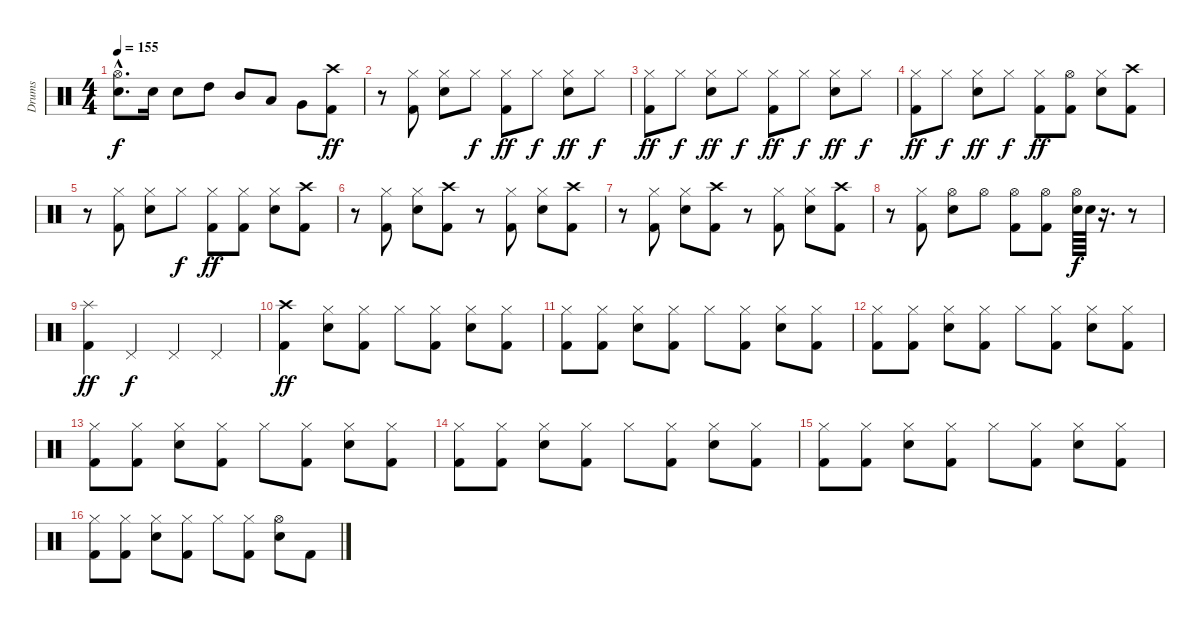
\track ("Drums" "Drums") {instrument percussion}
\staff {score}
\articulation defaults
\ts (4 4)
\tempo 155
\clef neutral
\ks c
("Hi-Hat (open)"{hac} "Snare (hit) 2"{hac}).8{d dy f} "Snare (hit) 2".16 "Snare (hit) 2".8 "High Tom (hit)".8 "Mid Tom (hit)".8 "Low Tom (hit)".8 "Very Low Tom (hit)".8 ("Crash high (hit)" "Kick (hit) 2").8{dy ff} |
r.8 ("Hi-Hat (closed)" "Kick (hit) 2").8 ("Hi-Hat (closed)" "Snare (hit) 2").8 "Hi-Hat (closed)".8{dy f} ("Hi-Hat (closed)" "Kick (hit) 2").8{dy ff} "Hi-Hat (closed)".8{dy f} ("Hi-Hat (closed)" "Snare (hit) 2").8{dy ff} "Hi-Hat (closed)".8{dy f} |
("Hi-Hat (closed)" "Kick (hit) 2").8{dy ff} "Hi-Hat (closed)".8{dy f} ("Hi-Hat (closed)" "Snare (hit) 2").8{dy ff} "Hi-Hat (closed)".8{dy f} ("Hi-Hat (closed)" "Kick (hit) 2").8{dy ff} "Hi-Hat (closed)".8{dy f} ("Hi-Hat (closed)" "Snare (hit) 2").8{dy ff} "Hi-Hat (closed)".8{dy f} |
("Hi-Hat (closed)" "Kick (hit) 2").8{dy ff} "Hi-Hat (closed)".8{dy f} ("Hi-Hat (closed)" "Snare (hit) 2").8{dy ff} "Hi-Hat (closed)".8{dy f} ("Hi-Hat (closed)" "Kick (hit) 2").8{dy ff} ("Hi-Hat (open)" "Kick (hit) 2").8 ("Hi-Hat (closed)" "Snare (hit) 2").8 ("Crash high (hit)" "Kick (hit) 2").8 |
r.8 ("Hi-Hat (closed)" "Kick (hit) 2").8 ("Hi-Hat (closed)" "Snare (hit) 2").8 "Hi-Hat (closed)".8{dy f} ("Hi-Hat (closed)" "Kick (hit) 2").8{dy ff} ("Hi-Hat (closed)" "Kick (hit) 2").8 ("Hi-Hat (closed)" "Snare (hit) 2").8 ("Crash high (hit)" "Kick (hit) 2").8 |
r.8 ("Hi-Hat (closed)" "Kick (hit) 2").8 ("Hi-Hat (closed)" "Snare (hit) 2").8 ("Crash high (hit)" "Kick (hit) 2").8 r.8 ("Hi-Hat (closed)" "Kick (hit) 2").8 ("Hi-Hat (closed)" "Snare (hit) 2").8 ("Crash high (hit)" "Kick (hit) 2").8 |
r.8 ("Hi-Hat (closed)" "Kick (hit) 2").8 ("Hi-Hat (closed)" "Snare (hit) 2").8 ("Crash high (hit)" "Kick (hit) 2").8 r.8 ("Hi-Hat (closed)" "Kick (hit) 2").8 ("Hi-Hat (closed)" "Snare (hit) 2").8 ("Crash high (hit)" "Kick (hit) 2").8 |
r.8 ("Hi-Hat (closed)" "Kick (hit) 2").8 ("Hi-Hat (open)" "Snare (hit) 2").8 "Hi-Hat (open)".8 ("Hi-Hat (open)" "Kick (hit) 2").8 ("Hi-Hat (open)" "Kick (hit) 2").8 ("Hi-Hat (open)" "Snare (hit) 2").64{dy f} "Snare (hit) 2".64 r.16{d} r.8 |
("Splash (hit)" "Kick (hit) 2").4{dy ff} "Pedal Hi-Hat (hit)".4{dy f} "Pedal Hi-Hat (hit)".4 "Pedal Hi-Hat (hit)".4 |
("Crash high (hit)" "Kick (hit) 2").4{dy ff} ("Hi-Hat (closed)" "Snare (hit) 2").8 ("Hi-Hat (closed)" "Kick (hit) 2").8 "Hi-Hat (closed)".8 ("Hi-Hat (closed)" "Kick (hit) 2").8 ("Hi-Hat (closed)" "Snare (hit) 2").8 ("Hi-Hat (closed)" "Kick (hit) 2").8 |
("Hi-Hat (closed)" "Kick (hit) 2").8 ("Hi-Hat (closed)" "Kick (hit) 2").8 ("Hi-Hat (closed)" "Snare (hit) 2").8 ("Hi-Hat (closed)" "Kick (hit) 2").8 "Hi-Hat (closed)".8 ("Hi-Hat (closed)" "Kick (hit) 2").8 ("Hi-Hat (closed)" "Snare (hit) 2").8 ("Hi-Hat (closed)" "Kick (hit) 2").8 |
("Hi-Hat (closed)" "Kick (hit) 2").8 ("Hi-Hat (closed)" "Kick (hit) 2").8 ("Hi-Hat (closed)" "Snare (hit) 2").8 ("Hi-Hat (closed)" "Kick (hit) 2").8 "Hi-Hat (closed)".8 ("Hi-Hat (closed)" "Kick (hit) 2").8 ("Hi-Hat (closed)" "Snare (hit) 2").8 ("Hi-Hat (closed)" "Kick (hit) 2").8 |
("Hi-Hat (closed)" "Kick (hit) 2").8 ("Hi-Hat (closed)" "Kick (hit) 2").8 ("Hi-Hat (closed)" "Snare (hit) 2").8 ("Hi-Hat (closed)" "Kick (hit) 2").8 "Hi-Hat (closed)".8 ("Hi-Hat (closed)" "Kick (hit) 2").8 ("Hi-Hat (closed)" "Snare (hit) 2").8 ("Hi-Hat (closed)" "Kick (hit) 2").8 |
("Hi-Hat (closed)" "Kick (hit) 2").8 ("Hi-Hat (closed)" "Kick (hit) 2").8 ("Hi-Hat (closed)" "Snare (hit) 2").8 ("Hi-Hat (closed)" "Kick (hit) 2").8 "Hi-Hat (closed)".8 ("Hi-Hat (closed)" "Kick (hit) 2").8 ("Hi-Hat (closed)" "Snare (hit) 2").8 ("Hi-Hat (closed)" "Kick (hit) 2").8 |
("Hi-Hat (closed)" "Kick (hit) 2").8 ("Hi-Hat (closed)" "Kick (hit) 2").8 ("Hi-Hat (closed)" "Snare (hit) 2").8 ("Hi-Hat (closed)" "Kick (hit) 2").8 "Hi-Hat (closed)".8 ("Hi-Hat (closed)" "Kick (hit) 2").8 ("Hi-Hat (closed)" "Snare (hit) 2").8 ("Hi-Hat (closed)" "Kick (hit) 2").8 |
("Hi-Hat (closed)" "Kick (hit) 2").8 ("Hi-Hat (closed)" "Kick (hit) 2").8 ("Hi-Hat (closed)" "Snare (hit) 2").8 ("Hi-Hat (closed)" "Kick (hit) 2").8 "Hi-Hat (closed)".8 ("Hi-Hat (closed)" "Kick (hit) 2").8 ("Hi-Hat (open)" "Snare (hit) 2").8 "Kick (hit) 2".8
